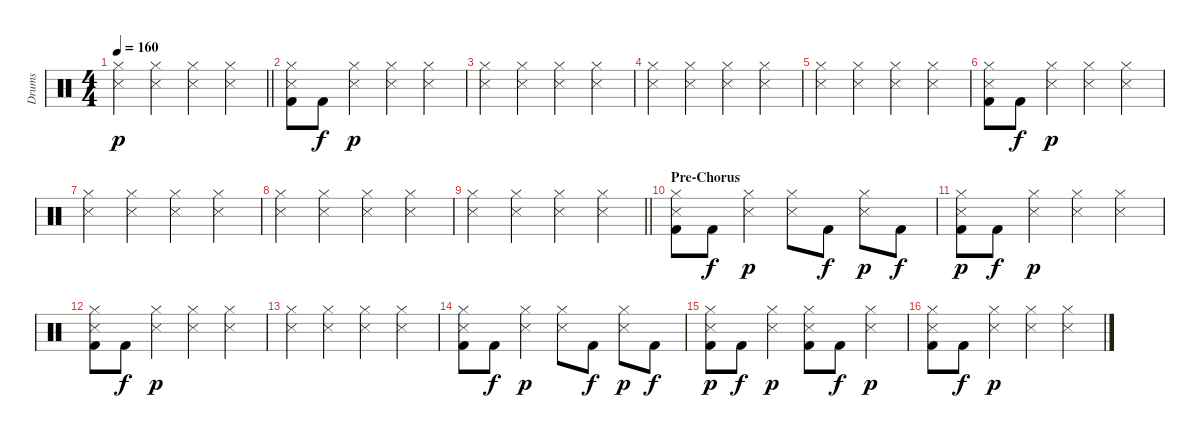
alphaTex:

\track ("Drums" "Drums") {instrument percussion}
\staff {score}
\articulation defaults
\ts (4 4)
\tempo 160
\clef neutral
\barLineRight lightlight
\ks c
("Hi-Hat (closed)" "Snare (side stick) 3").4{dy p} ("Hi-Hat (closed)" "Snare (side stick) 3").4 ("Hi-Hat (closed)" "Snare (side stick) 3").4 ("Hi-Hat (closed)" "Snare (side stick) 3").4 |
("Hi-Hat (closed)" "Snare (side stick) 3" "Kick (hit) 2").8 "Kick (hit) 2".8{dy f} ("Hi-Hat (closed)" "Snare (side stick) 3").4{dy p} ("Hi-Hat (closed)" "Snare (side stick) 3").4 ("Hi-Hat (closed)" "Snare (side stick) 3").4 |
("Hi-Hat (closed)" "Snare (side stick) 3").4 ("Hi-Hat (closed)" "Snare (side stick) 3").4 ("Hi-Hat (closed)" "Snare (side stick) 3").4 ("Hi-Hat (closed)" "Snare (side stick) 3").4 |
("Hi-Hat (closed)" "Snare (side stick) 3").4 ("Hi-Hat (closed)" "Snare (side stick) 3").4 ("Hi-Hat (closed)" "Snare (side stick) 3").4 ("Hi-Hat (closed)" "Snare (side stick) 3").4 |
("Hi-Hat (closed)" "Snare (side stick) 3").4 ("Hi-Hat (closed)" "Snare (side stick) 3").4 ("Hi-Hat (closed)" "Snare (side stick) 3").4 ("Hi-Hat (closed)" "Snare (side stick) 3").4 |
("Hi-Hat (closed)" "Snare (side stick) 3" "Kick (hit) 2").8 "Kick (hit) 2".8{dy f} ("Hi-Hat (closed)" "Snare (side stick) 3").4{dy p} ("Hi-Hat (closed)" "Snare (side stick) 3").4 ("Hi-Hat (closed)" "Snare (side stick) 3").4 |
("Hi-Hat (closed)" "Snare (side stick) 3").4 ("Hi-Hat (closed)" "Snare (side stick) 3").4 ("Hi-Hat (closed)" "Snare (side stick) 3").4 ("Hi-Hat (closed)" "Snare (side stick) 3").4 |
("Hi-Hat (closed)" "Snare (side stick) 3").4 ("Hi-Hat (closed)" "Snare (side stick) 3").4 ("Hi-Hat (closed)" "Snare (side stick) 3").4 ("Hi-Hat (closed)" "Snare (side stick) 3").4 |
\barLineRight lightlight
("Hi-Hat (closed)" "Snare (side stick) 3").4 ("Hi-Hat (closed)" "Snare (side stick) 3").4 ("Hi-Hat (closed)" "Snare (side stick) 3").4 ("Hi-Hat (closed)" "Snare (side stick) 3").4 |
\section ("" "Pre-Chorus")
("Hi-Hat (closed)" "Snare (side stick) 3" "Kick (hit) 2").8 "Kick (hit) 2".8{dy f} ("Hi-Hat (closed)" "Snare (side stick) 3").4{dy p} ("Hi-Hat (closed)" "Snare (side stick) 3").8 "Kick (hit) 2".8{dy f} ("Hi-Hat (closed)" "Snare (side stick) 3").8{dy p} "Kick (hit) 2".8{dy f} |
("Hi-Hat (closed)" "Snare (side stick) 3" "Kick (hit) 2").8{dy p} "Kick (hit) 2".8{dy f} ("Hi-Hat (closed)" "Snare (side stick) 3").4{dy p} ("Hi-Hat (closed)" "Snare (side stick) 3").4 ("Hi-Hat (closed)" "Snare (side stick) 3").4 |
("Hi-Hat (closed)" "Snare (side stick) 3" "Kick (hit) 2").8 "Kick (hit) 2".8{dy f} ("Hi-Hat (closed)" "Snare (side stick) 3").4{dy p} ("Hi-Hat (closed)" "Snare (side stick) 3").4 ("Hi-Hat (closed)" "Snare (side stick) 3").4 |
("Hi-Hat (closed)" "Snare (side stick) 3").4 ("Hi-Hat (closed)" "Snare (side stick) 3").4 ("Hi-Hat (closed)" "Snare (side stick) 3").4 ("Hi-Hat (closed)" "Snare (side stick) 3").4 |
("Hi-Hat (closed)" "Snare (side stick) 3" "Kick (hit) 2").8 "Kick (hit) 2".8{dy f} ("Hi-Hat (closed)" "Snare (side stick) 3").4{dy p} ("Hi-Hat (closed)" "Snare (side stick) 3").8 "Kick (hit) 2".8{dy f} ("Hi-Hat (closed)" "Snare (side stick) 3").8{dy p} "Kick (hit) 2".8{dy f} |
("Hi-Hat (closed)" "Snare (side stick) 3" "Kick (hit) 2").8{dy p} "Kick (hit) 2".8{dy f} ("Hi-Hat (closed)" "Snare (side stick) 3").4{dy p} ("Hi-Hat (closed)" "Snare (side stick) 3" "Kick (hit) 2").8 "Kick (hit) 2".8{dy f} ("Hi-Hat (closed)" "Snare (side stick) 3").4{dy p} |
("Hi-Hat (closed)" "Snare (side stick) 3" "Kick (hit) 2").8 "Kick (hit) 2".8{dy f} ("Hi-Hat (closed)" "Snare (side stick) 3").4{dy p} ("Hi-Hat (closed)" "Snare (side stick) 3").4 ("Hi-Hat (closed)" "Snare (side stick) 3").4
